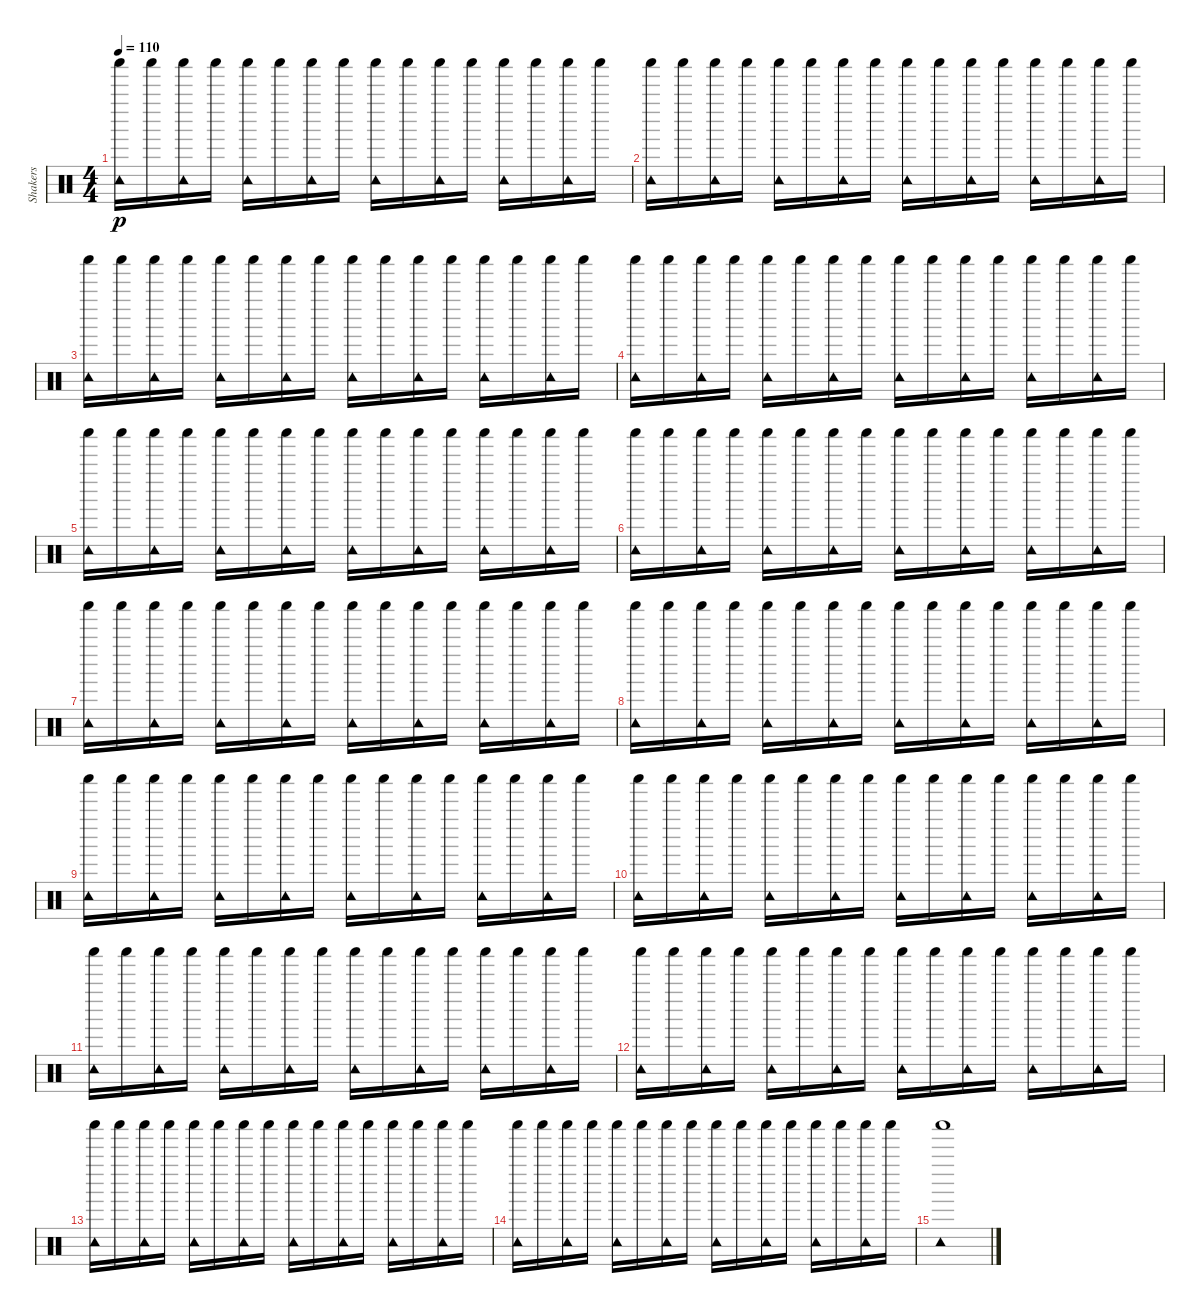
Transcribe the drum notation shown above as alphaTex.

\track ("Shakers" "Shakers") {instrument percussion}
\staff {score}
\articulation defaults
\ts (4 4)
\tempo 110
\clef neutral
\ks c
("Shaker (hit)" "Tambourine (hit)").16{dy p} "Shaker (hit)".16 ("Shaker (hit)" "Tambourine (hit)").16 "Shaker (hit)".16 ("Shaker (hit)" "Tambourine (hit)").16 "Shaker (hit)".16 ("Shaker (hit)" "Tambourine (hit)").16 "Shaker (hit)".16 ("Shaker (hit)" "Tambourine (hit)").16 "Shaker (hit)".16 ("Shaker (hit)" "Tambourine (hit)").16 "Shaker (hit)".16 ("Shaker (hit)" "Tambourine (hit)").16 "Shaker (hit)".16 ("Shaker (hit)" "Tambourine (hit)").16 "Shaker (hit)".16 |
("Shaker (hit)" "Tambourine (hit)").16 "Shaker (hit)".16 ("Shaker (hit)" "Tambourine (hit)").16 "Shaker (hit)".16 ("Shaker (hit)" "Tambourine (hit)").16 "Shaker (hit)".16 ("Shaker (hit)" "Tambourine (hit)").16 "Shaker (hit)".16 ("Shaker (hit)" "Tambourine (hit)").16 "Shaker (hit)".16 ("Shaker (hit)" "Tambourine (hit)").16 "Shaker (hit)".16 ("Shaker (hit)" "Tambourine (hit)").16 "Shaker (hit)".16 ("Shaker (hit)" "Tambourine (hit)").16 "Shaker (hit)".16 |
("Shaker (hit)" "Tambourine (hit)").16 "Shaker (hit)".16 ("Shaker (hit)" "Tambourine (hit)").16 "Shaker (hit)".16 ("Shaker (hit)" "Tambourine (hit)").16 "Shaker (hit)".16 ("Shaker (hit)" "Tambourine (hit)").16 "Shaker (hit)".16 ("Shaker (hit)" "Tambourine (hit)").16 "Shaker (hit)".16 ("Shaker (hit)" "Tambourine (hit)").16 "Shaker (hit)".16 ("Shaker (hit)" "Tambourine (hit)").16 "Shaker (hit)".16 ("Shaker (hit)" "Tambourine (hit)").16 "Shaker (hit)".16 |
("Shaker (hit)" "Tambourine (hit)").16 "Shaker (hit)".16 ("Shaker (hit)" "Tambourine (hit)").16 "Shaker (hit)".16 ("Shaker (hit)" "Tambourine (hit)").16 "Shaker (hit)".16 ("Shaker (hit)" "Tambourine (hit)").16 "Shaker (hit)".16 ("Shaker (hit)" "Tambourine (hit)").16 "Shaker (hit)".16 ("Shaker (hit)" "Tambourine (hit)").16 "Shaker (hit)".16 ("Shaker (hit)" "Tambourine (hit)").16 "Shaker (hit)".16 ("Shaker (hit)" "Tambourine (hit)").16 "Shaker (hit)".16 |
("Shaker (hit)" "Tambourine (hit)").16 "Shaker (hit)".16 ("Shaker (hit)" "Tambourine (hit)").16 "Shaker (hit)".16 ("Shaker (hit)" "Tambourine (hit)").16 "Shaker (hit)".16 ("Shaker (hit)" "Tambourine (hit)").16 "Shaker (hit)".16 ("Shaker (hit)" "Tambourine (hit)").16 "Shaker (hit)".16 ("Shaker (hit)" "Tambourine (hit)").16 "Shaker (hit)".16 ("Shaker (hit)" "Tambourine (hit)").16 "Shaker (hit)".16 ("Shaker (hit)" "Tambourine (hit)").16 "Shaker (hit)".16 |
("Shaker (hit)" "Tambourine (hit)").16 "Shaker (hit)".16 ("Shaker (hit)" "Tambourine (hit)").16 "Shaker (hit)".16 ("Shaker (hit)" "Tambourine (hit)").16 "Shaker (hit)".16 ("Shaker (hit)" "Tambourine (hit)").16 "Shaker (hit)".16 ("Shaker (hit)" "Tambourine (hit)").16 "Shaker (hit)".16 ("Shaker (hit)" "Tambourine (hit)").16 "Shaker (hit)".16 ("Shaker (hit)" "Tambourine (hit)").16 "Shaker (hit)".16 ("Shaker (hit)" "Tambourine (hit)").16 "Shaker (hit)".16 |
("Shaker (hit)" "Tambourine (hit)").16 "Shaker (hit)".16 ("Shaker (hit)" "Tambourine (hit)").16 "Shaker (hit)".16 ("Shaker (hit)" "Tambourine (hit)").16 "Shaker (hit)".16 ("Shaker (hit)" "Tambourine (hit)").16 "Shaker (hit)".16 ("Shaker (hit)" "Tambourine (hit)").16 "Shaker (hit)".16 ("Shaker (hit)" "Tambourine (hit)").16 "Shaker (hit)".16 ("Shaker (hit)" "Tambourine (hit)").16 "Shaker (hit)".16 ("Shaker (hit)" "Tambourine (hit)").16 "Shaker (hit)".16 |
("Shaker (hit)" "Tambourine (hit)").16 "Shaker (hit)".16 ("Shaker (hit)" "Tambourine (hit)").16 "Shaker (hit)".16 ("Shaker (hit)" "Tambourine (hit)").16 "Shaker (hit)".16 ("Shaker (hit)" "Tambourine (hit)").16 "Shaker (hit)".16 ("Shaker (hit)" "Tambourine (hit)").16 "Shaker (hit)".16 ("Shaker (hit)" "Tambourine (hit)").16 "Shaker (hit)".16 ("Shaker (hit)" "Tambourine (hit)").16 "Shaker (hit)".16 ("Shaker (hit)" "Tambourine (hit)").16 "Shaker (hit)".16 |
("Shaker (hit)" "Tambourine (hit)").16 "Shaker (hit)".16 ("Shaker (hit)" "Tambourine (hit)").16 "Shaker (hit)".16 ("Shaker (hit)" "Tambourine (hit)").16 "Shaker (hit)".16 ("Shaker (hit)" "Tambourine (hit)").16 "Shaker (hit)".16 ("Shaker (hit)" "Tambourine (hit)").16 "Shaker (hit)".16 ("Shaker (hit)" "Tambourine (hit)").16 "Shaker (hit)".16 ("Shaker (hit)" "Tambourine (hit)").16 "Shaker (hit)".16 ("Shaker (hit)" "Tambourine (hit)").16 "Shaker (hit)".16 |
("Shaker (hit)" "Tambourine (hit)").16 "Shaker (hit)".16 ("Shaker (hit)" "Tambourine (hit)").16 "Shaker (hit)".16 ("Shaker (hit)" "Tambourine (hit)").16 "Shaker (hit)".16 ("Shaker (hit)" "Tambourine (hit)").16 "Shaker (hit)".16 ("Shaker (hit)" "Tambourine (hit)").16 "Shaker (hit)".16 ("Shaker (hit)" "Tambourine (hit)").16 "Shaker (hit)".16 ("Shaker (hit)" "Tambourine (hit)").16 "Shaker (hit)".16 ("Shaker (hit)" "Tambourine (hit)").16 "Shaker (hit)".16 |
("Shaker (hit)" "Tambourine (hit)").16 "Shaker (hit)".16 ("Shaker (hit)" "Tambourine (hit)").16 "Shaker (hit)".16 ("Shaker (hit)" "Tambourine (hit)").16 "Shaker (hit)".16 ("Shaker (hit)" "Tambourine (hit)").16 "Shaker (hit)".16 ("Shaker (hit)" "Tambourine (hit)").16 "Shaker (hit)".16 ("Shaker (hit)" "Tambourine (hit)").16 "Shaker (hit)".16 ("Shaker (hit)" "Tambourine (hit)").16 "Shaker (hit)".16 ("Shaker (hit)" "Tambourine (hit)").16 "Shaker (hit)".16 |
("Shaker (hit)" "Tambourine (hit)").16 "Shaker (hit)".16 ("Shaker (hit)" "Tambourine (hit)").16 "Shaker (hit)".16 ("Shaker (hit)" "Tambourine (hit)").16 "Shaker (hit)".16 ("Shaker (hit)" "Tambourine (hit)").16 "Shaker (hit)".16 ("Shaker (hit)" "Tambourine (hit)").16 "Shaker (hit)".16 ("Shaker (hit)" "Tambourine (hit)").16 "Shaker (hit)".16 ("Shaker (hit)" "Tambourine (hit)").16 "Shaker (hit)".16 ("Shaker (hit)" "Tambourine (hit)").16 "Shaker (hit)".16 |
("Shaker (hit)" "Tambourine (hit)").16 "Shaker (hit)".16 ("Shaker (hit)" "Tambourine (hit)").16 "Shaker (hit)".16 ("Shaker (hit)" "Tambourine (hit)").16 "Shaker (hit)".16 ("Shaker (hit)" "Tambourine (hit)").16 "Shaker (hit)".16 ("Shaker (hit)" "Tambourine (hit)").16 "Shaker (hit)".16 ("Shaker (hit)" "Tambourine (hit)").16 "Shaker (hit)".16 ("Shaker (hit)" "Tambourine (hit)").16 "Shaker (hit)".16 ("Shaker (hit)" "Tambourine (hit)").16 "Shaker (hit)".16 |
("Shaker (hit)" "Tambourine (hit)").16 "Shaker (hit)".16 ("Shaker (hit)" "Tambourine (hit)").16 "Shaker (hit)".16 ("Shaker (hit)" "Tambourine (hit)").16 "Shaker (hit)".16 ("Shaker (hit)" "Tambourine (hit)").16 "Shaker (hit)".16 ("Shaker (hit)" "Tambourine (hit)").16 "Shaker (hit)".16 ("Shaker (hit)" "Tambourine (hit)").16 "Shaker (hit)".16 ("Shaker (hit)" "Tambourine (hit)").16 "Shaker (hit)".16 ("Shaker (hit)" "Tambourine (hit)").16 "Shaker (hit)".16 |
("Shaker (hit)" "Tambourine (hit)").1
